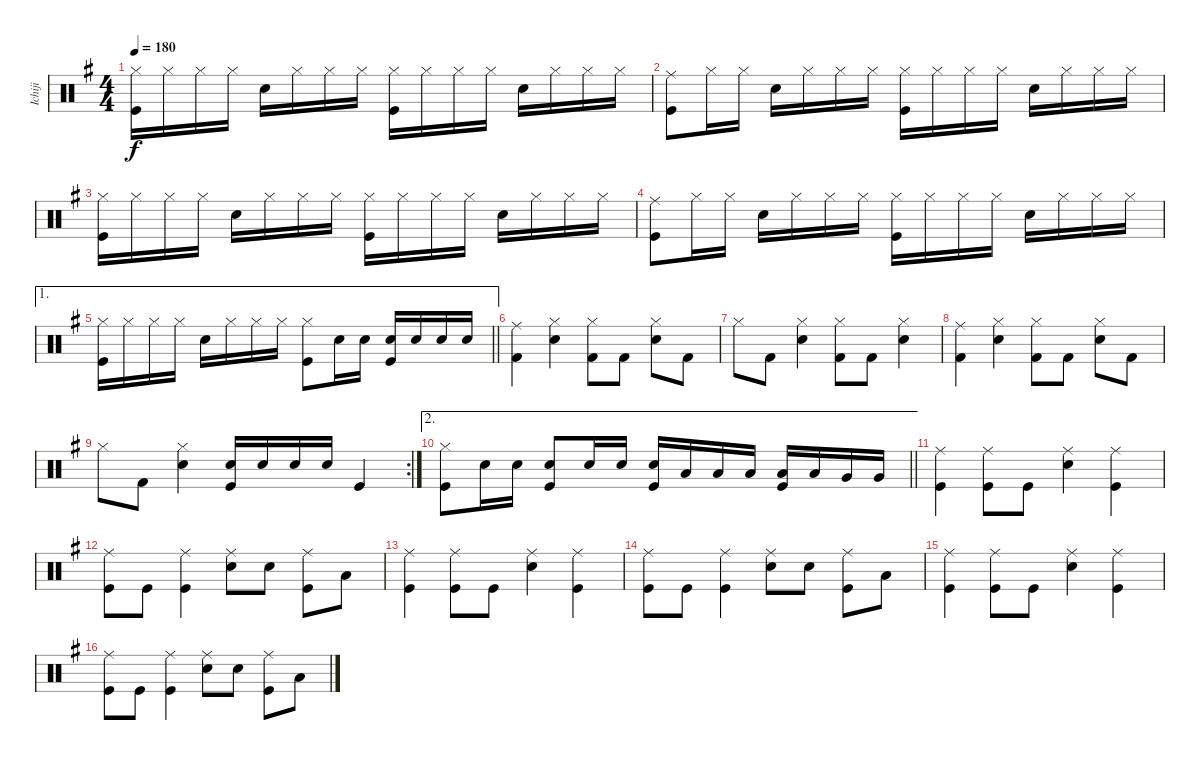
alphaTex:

\track ("Ichiji" "Ichiji") {instrument percussion}
\staff {score}
\articulation defaults
\ts (4 4)
\tempo 180
\clef neutral
\ks g
("Hi-Hat (closed)" "Kick (hit)").16{dy f} "Hi-Hat (closed)".16 "Hi-Hat (closed)".16 "Hi-Hat (closed)".16 "Snare (hit) 2".16 "Hi-Hat (closed)".16 "Hi-Hat (closed)".16 "Hi-Hat (closed)".16 ("Hi-Hat (closed)" "Kick (hit)").16 "Hi-Hat (closed)".16 "Hi-Hat (closed)".16 "Hi-Hat (closed)".16 "Snare (hit) 2".16 "Hi-Hat (closed)".16 "Hi-Hat (closed)".16 "Hi-Hat (closed)".16 |
("Ride (middle)" "Kick (hit)").8 "Hi-Hat (closed)".16 "Hi-Hat (closed)".16 "Snare (hit) 2".16 "Hi-Hat (closed)".16 "Hi-Hat (closed)".16 "Hi-Hat (closed)".16 ("Hi-Hat (closed)" "Kick (hit)").16 "Hi-Hat (closed)".16 "Hi-Hat (closed)".16 "Hi-Hat (closed)".16 "Snare (hit) 2".16 "Hi-Hat (closed)".16 "Hi-Hat (closed)".16 "Hi-Hat (closed)".16 |
("Hi-Hat (closed)" "Kick (hit)").16 "Hi-Hat (closed)".16 "Hi-Hat (closed)".16 "Hi-Hat (closed)".16 "Snare (hit) 2".16 "Hi-Hat (closed)".16 "Hi-Hat (closed)".16 "Hi-Hat (closed)".16 ("Hi-Hat (closed)" "Kick (hit)").16 "Hi-Hat (closed)".16 "Hi-Hat (closed)".16 "Hi-Hat (closed)".16 "Snare (hit) 2".16 "Hi-Hat (closed)".16 "Hi-Hat (closed)".16 "Hi-Hat (closed)".16 |
("Ride (middle)" "Kick (hit)").8 "Hi-Hat (closed)".16 "Hi-Hat (closed)".16 "Snare (hit) 2".16 "Hi-Hat (closed)".16 "Hi-Hat (closed)".16 "Hi-Hat (closed)".16 ("Hi-Hat (closed)" "Kick (hit)").16 "Hi-Hat (closed)".16 "Hi-Hat (closed)".16 "Hi-Hat (closed)".16 "Snare (hit) 2".16 "Hi-Hat (closed)".16 "Hi-Hat (closed)".16 "Hi-Hat (closed)".16 |
\ae 1
\barLineRight lightlight
("Hi-Hat (closed)" "Kick (hit)").16 "Hi-Hat (closed)".16 "Hi-Hat (closed)".16 "Hi-Hat (closed)".16 "Snare (hit) 2".16 "Hi-Hat (closed)".16 "Hi-Hat (closed)".16 "Hi-Hat (closed)".16 ("Hi-Hat (closed)" "Kick (hit)").8 "Snare (hit) 2".16 "Snare (hit) 2".16 ("Snare (hit) 2" "Kick (hit)").16 "Snare (hit) 2".16 "Snare (hit) 2".16 "Snare (hit) 2".16 |
("Ride (middle)" "Kick (hit) 2").4 ("Hi-Hat (closed)" "Snare (hit) 2").4 ("Hi-Hat (closed)" "Kick (hit) 2").8 "Kick (hit) 2".8 ("Hi-Hat (closed)" "Snare (hit) 2").8 "Kick (hit) 2".8 |
"Hi-Hat (closed)".8 "Kick (hit) 2".8 ("Hi-Hat (closed)" "Snare (hit) 2").4 ("Hi-Hat (closed)" "Kick (hit) 2").8 "Kick (hit) 2".8 ("Hi-Hat (closed)" "Snare (hit) 2").4 |
("Ride (middle)" "Kick (hit) 2").4 ("Hi-Hat (closed)" "Snare (hit) 2").4 ("Hi-Hat (closed)" "Kick (hit) 2").8 "Kick (hit) 2".8 ("Hi-Hat (closed)" "Snare (hit) 2").8 "Kick (hit) 2".8 |
\rc 2 "Hi-Hat (closed)".8 "Kick (hit) 2".8
("Hi-Hat (closed)" "Snare (hit) 2").4 ("Snare (hit) 2" "Kick (hit)").16 "Snare (hit) 2".16 "Snare (hit) 2".16 "Snare (hit) 2".16 "Kick (hit)".4 |
\ae 2
\barLineRight lightlight
("Hi-Hat (closed)" "Kick (hit)").8 "Snare (hit) 2".16 "Snare (hit) 2".16 ("Snare (hit) 2" "Kick (hit)").8 "Snare (hit) 2".16 "Snare (hit) 2".16 ("Snare (hit) 2" "Kick (hit)").16 "Low Tom (hit)".16 "Low Tom (hit)".16 "Low Tom (hit)".16 ("Low Tom (hit)" "Kick (hit)").16 "Low Tom (hit)".16 "Very Low Tom (hit)".16 "Very Low Tom (hit)".16 |
("Ride (middle)" "Kick (hit)").4 ("Ride (middle)" "Kick (hit)").8 "Kick (hit)".8 ("Ride (middle)" "Snare (hit) 2").4 ("Ride (middle)" "Kick (hit)").4 |
("Ride (middle)" "Kick (hit)").8 "Kick (hit)".8 ("Ride (middle)" "Kick (hit)").4 ("Ride (middle)" "Snare (hit) 2").8 "Snare (hit) 2".8 ("Ride (middle)" "Kick (hit)").8 "Low Tom (hit)".8 |
("Ride (middle)" "Kick (hit)").4 ("Ride (middle)" "Kick (hit)").8 "Kick (hit)".8 ("Ride (middle)" "Snare (hit) 2").4 ("Ride (middle)" "Kick (hit)").4 |
("Ride (middle)" "Kick (hit)").8 "Kick (hit)".8 ("Ride (middle)" "Kick (hit)").4 ("Ride (middle)" "Snare (hit) 2").8 "Snare (hit) 2".8 ("Ride (middle)" "Kick (hit)").8 "Low Tom (hit)".8 |
("Ride (middle)" "Kick (hit)").4 ("Ride (middle)" "Kick (hit)").8 "Kick (hit)".8 ("Ride (middle)" "Snare (hit) 2").4 ("Ride (middle)" "Kick (hit)").4 |
("Ride (middle)" "Kick (hit)").8 "Kick (hit)".8 ("Ride (middle)" "Kick (hit)").4 ("Ride (middle)" "Snare (hit) 2").8 "Snare (hit) 2".8 ("Ride (middle)" "Kick (hit)").8 "Low Tom (hit)".8
